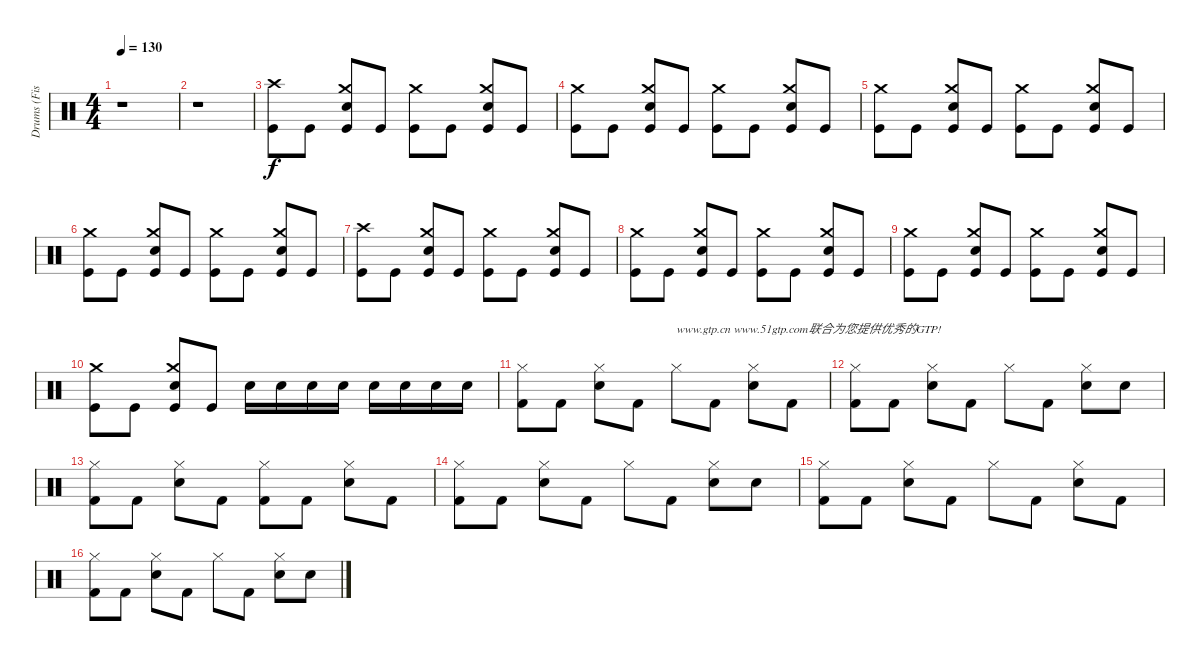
\track ("Drums (Fish)" "Drums (Fis") {instrument percussion}
\staff {score}
\articulation defaults
\ts (4 4)
\tempo 130
\clef neutral
\ks c
r.1{dy f} |
r.1 |
("Crash high (hit)" "Kick (hit)").8 "Kick (hit)".8 ("Crash medium (hit)" "Electric Snare (hit)" "Kick (hit)").8 "Kick (hit)".8 ("Crash medium (hit)" "Kick (hit)").8 "Kick (hit)".8 ("Crash medium (hit)" "Electric Snare (hit)" "Kick (hit)").8 "Kick (hit)".8 |
("Crash medium (hit)" "Kick (hit)").8 "Kick (hit)".8 ("Crash medium (hit)" "Electric Snare (hit)" "Kick (hit)").8 "Kick (hit)".8 ("Crash medium (hit)" "Kick (hit)").8 "Kick (hit)".8 ("Crash medium (hit)" "Electric Snare (hit)" "Kick (hit)").8 "Kick (hit)".8 |
("Crash medium (hit)" "Kick (hit)").8 "Kick (hit)".8 ("Crash medium (hit)" "Electric Snare (hit)" "Kick (hit)").8 "Kick (hit)".8 ("Crash medium (hit)" "Kick (hit)").8 "Kick (hit)".8 ("Crash medium (hit)" "Electric Snare (hit)" "Kick (hit)").8 "Kick (hit)".8 |
("Crash medium (hit)" "Kick (hit)").8 "Kick (hit)".8 ("Crash medium (hit)" "Electric Snare (hit)" "Kick (hit)").8 "Kick (hit)".8 ("Crash medium (hit)" "Kick (hit)").8 "Kick (hit)".8 ("Crash medium (hit)" "Electric Snare (hit)" "Kick (hit)").8 "Kick (hit)".8 |
("Crash high (hit)" "Kick (hit)").8 "Kick (hit)".8 ("Crash medium (hit)" "Electric Snare (hit)" "Kick (hit)").8 "Kick (hit)".8 ("Crash medium (hit)" "Kick (hit)").8 "Kick (hit)".8 ("Crash medium (hit)" "Electric Snare (hit)" "Kick (hit)").8 "Kick (hit)".8 |
("Crash medium (hit)" "Kick (hit)").8 "Kick (hit)".8 ("Crash medium (hit)" "Electric Snare (hit)" "Kick (hit)").8 "Kick (hit)".8 ("Crash medium (hit)" "Kick (hit)").8 "Kick (hit)".8 ("Crash medium (hit)" "Electric Snare (hit)" "Kick (hit)").8 "Kick (hit)".8 |
("Crash medium (hit)" "Kick (hit)").8 "Kick (hit)".8 ("Crash medium (hit)" "Electric Snare (hit)" "Kick (hit)").8 "Kick (hit)".8 ("Crash medium (hit)" "Kick (hit)").8 "Kick (hit)".8 ("Crash medium (hit)" "Electric Snare (hit)" "Kick (hit)").8 "Kick (hit)".8 |
("Crash medium (hit)" "Kick (hit)").8 "Kick (hit)".8 ("Crash medium (hit)" "Electric Snare (hit)" "Kick (hit)").8 "Kick (hit)".8 "Snare (hit) 2".16 "Snare (hit) 2".16 "Snare (hit) 2".16 "Snare (hit) 2".16 "Snare (hit) 2".16 "Snare (hit) 2".16 "Snare (hit) 2".16 "Snare (hit) 2".16 |
("Hi-Hat (closed)" "Kick (hit) 2").8 "Kick (hit) 2".8 ("Hi-Hat (closed)" "Electric Snare (hit)").8 "Kick (hit) 2".8 "Hi-Hat (closed)".8{txt "www.gtp.cn www.51gtp.com联合为您提供优秀的GTP!"} "Kick (hit) 2".8 ("Hi-Hat (closed)" "Electric Snare (hit)").8 "Kick (hit) 2".8 |
("Hi-Hat (closed)" "Kick (hit) 2").8 "Kick (hit) 2".8 ("Hi-Hat (closed)" "Electric Snare (hit)").8 "Kick (hit) 2".8 "Hi-Hat (closed)".8 "Kick (hit) 2".8 ("Hi-Hat (closed)" "Electric Snare (hit)").8 "Electric Snare (hit)".8 |
("Hi-Hat (closed)" "Kick (hit) 2").8 "Kick (hit) 2".8 ("Hi-Hat (closed)" "Electric Snare (hit)").8 "Kick (hit) 2".8 ("Hi-Hat (closed)" "Kick (hit) 2").8 "Kick (hit) 2".8 ("Hi-Hat (closed)" "Electric Snare (hit)").8 "Kick (hit) 2".8 |
("Hi-Hat (closed)" "Kick (hit) 2").8 "Kick (hit) 2".8 ("Hi-Hat (closed)" "Electric Snare (hit)").8 "Kick (hit) 2".8 "Hi-Hat (closed)".8 "Kick (hit) 2".8 ("Hi-Hat (closed)" "Electric Snare (hit)").8 "Electric Snare (hit)".8 |
("Hi-Hat (closed)" "Kick (hit) 2").8 "Kick (hit) 2".8 ("Hi-Hat (closed)" "Electric Snare (hit)").8 "Kick (hit) 2".8 "Hi-Hat (closed)".8 "Kick (hit) 2".8 ("Hi-Hat (closed)" "Electric Snare (hit)").8 "Kick (hit) 2".8 |
("Hi-Hat (closed)" "Kick (hit) 2").8 "Kick (hit) 2".8 ("Hi-Hat (closed)" "Electric Snare (hit)").8 "Kick (hit) 2".8 "Hi-Hat (closed)".8 "Kick (hit) 2".8 ("Hi-Hat (closed)" "Electric Snare (hit)").8 "Electric Snare (hit)".8
